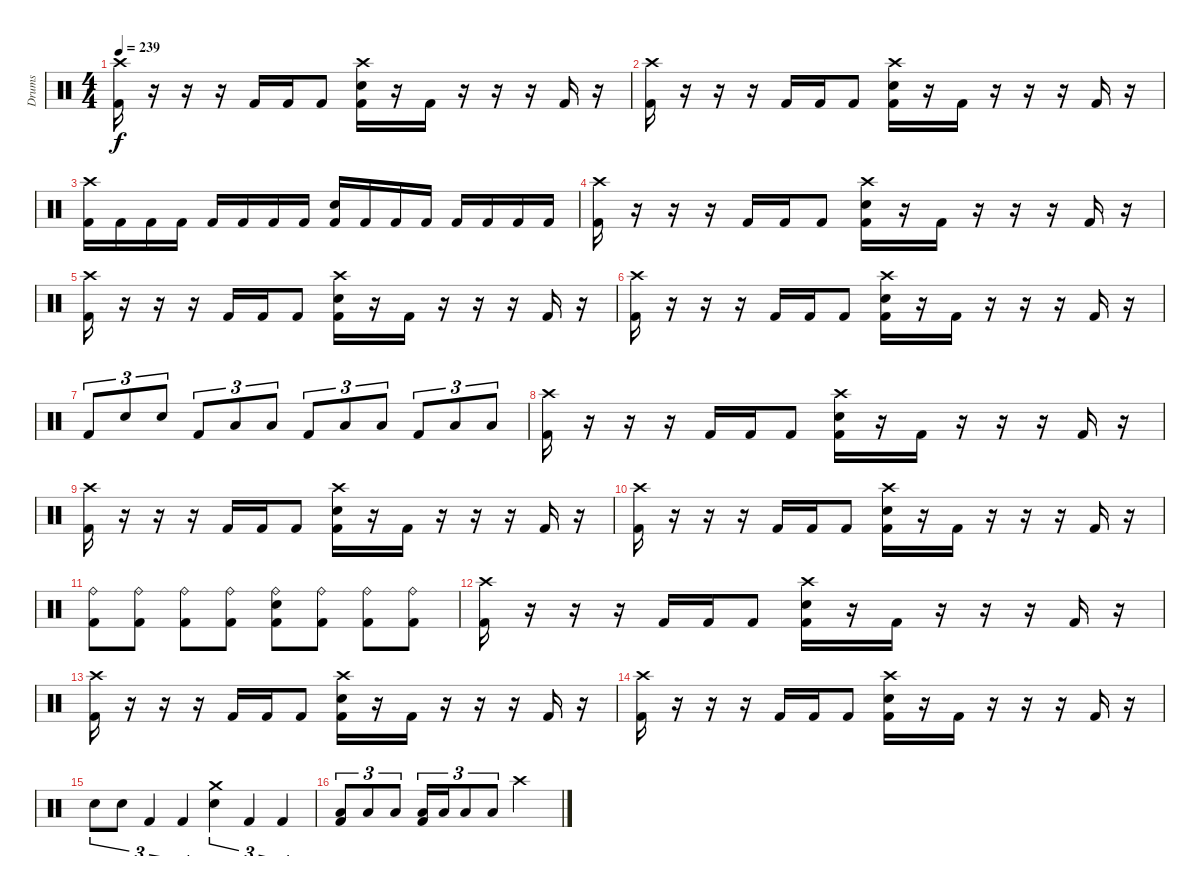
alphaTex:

\track ("Drums" "Drums") {instrument percussion}
\staff {score}
\articulation defaults
\ts (4 4)
\tempo 239
\clef neutral
\ks c
("Crash high (hit)" "Kick (hit) 2").16{dy f} r.16 r.16 r.16 "Kick (hit) 2".16 "Kick (hit) 2".16 "Kick (hit) 2".8 ("Crash high (hit)" "Electric Snare (hit)" "Kick (hit) 2").16 r.16 "Kick (hit) 2".16 r.16 r.16 r.16 "Kick (hit) 2".16 r.16 |
("Crash high (hit)" "Kick (hit) 2").16 r.16 r.16 r.16 "Kick (hit) 2".16 "Kick (hit) 2".16 "Kick (hit) 2".8 ("Crash high (hit)" "Electric Snare (hit)" "Kick (hit) 2").16 r.16 "Kick (hit) 2".16 r.16 r.16 r.16 "Kick (hit) 2".16 r.16 |
("Crash high (hit)" "Kick (hit) 2").16 "Kick (hit) 2".16 "Kick (hit) 2".16 "Kick (hit) 2".16 "Kick (hit) 2".16 "Kick (hit) 2".16 "Kick (hit) 2".16 "Kick (hit) 2".16 ("Electric Snare (hit)" "Kick (hit) 2").16 "Kick (hit) 2".16 "Kick (hit) 2".16 "Kick (hit) 2".16 "Kick (hit) 2".16 "Kick (hit) 2".16 "Kick (hit) 2".16 "Kick (hit) 2".16 |
("Crash high (hit)" "Kick (hit) 2").16 r.16 r.16 r.16 "Kick (hit) 2".16 "Kick (hit) 2".16 "Kick (hit) 2".8 ("Crash high (hit)" "Electric Snare (hit)" "Kick (hit) 2").16 r.16 "Kick (hit) 2".16 r.16 r.16 r.16 "Kick (hit) 2".16 r.16 |
("Crash high (hit)" "Kick (hit) 2").16 r.16 r.16 r.16 "Kick (hit) 2".16 "Kick (hit) 2".16 "Kick (hit) 2".8 ("Crash high (hit)" "Electric Snare (hit)" "Kick (hit) 2").16 r.16 "Kick (hit) 2".16 r.16 r.16 r.16 "Kick (hit) 2".16 r.16 |
("Crash high (hit)" "Kick (hit) 2").16 r.16 r.16 r.16 "Kick (hit) 2".16 "Kick (hit) 2".16 "Kick (hit) 2".8 ("Crash high (hit)" "Electric Snare (hit)" "Kick (hit) 2").16 r.16 "Kick (hit) 2".16 r.16 r.16 r.16 "Kick (hit) 2".16 r.16 |
"Kick (hit) 2".8{tu (3 2)} "Electric Snare (hit)".8{tu (3 2)} "Electric Snare (hit)".8{tu (3 2)} "Kick (hit) 2".8{tu (3 2)} "Low Tom (hit)".8{tu (3 2)} "Low Tom (hit)".8{tu (3 2)} "Kick (hit) 2".8{tu (3 2)} "Low Tom (hit)".8{tu (3 2)} "Low Tom (hit)".8{tu (3 2)} "Kick (hit) 2".8{tu (3 2)} "Low Floor Tom (hit)".8{tu (3 2)} "Low Floor Tom (hit)".8{tu (3 2)} |
("Crash high (hit)" "Kick (hit) 2").16 r.16 r.16 r.16 "Kick (hit) 2".16 "Kick (hit) 2".16 "Kick (hit) 2".8 ("Crash high (hit)" "Electric Snare (hit)" "Kick (hit) 2").16 r.16 "Kick (hit) 2".16 r.16 r.16 r.16 "Kick (hit) 2".16 r.16 |
("Crash high (hit)" "Kick (hit) 2").16 r.16 r.16 r.16 "Kick (hit) 2".16 "Kick (hit) 2".16 "Kick (hit) 2".8 ("Crash high (hit)" "Electric Snare (hit)" "Kick (hit) 2").16 r.16 "Kick (hit) 2".16 r.16 r.16 r.16 "Kick (hit) 2".16 r.16 |
("Crash high (hit)" "Kick (hit) 2").16 r.16 r.16 r.16 "Kick (hit) 2".16 "Kick (hit) 2".16 "Kick (hit) 2".8 ("Crash high (hit)" "Electric Snare (hit)" "Kick (hit) 2").16 r.16 "Kick (hit) 2".16 r.16 r.16 r.16 "Kick (hit) 2".16 r.16 |
("Ride (bell)" "Kick (hit) 2").8 ("Ride (bell)" "Kick (hit) 2").8 ("Ride (bell)" "Kick (hit) 2").8 ("Ride (bell)" "Kick (hit) 2").8 ("Ride (bell)" "Electric Snare (hit)" "Kick (hit) 2").8 ("Ride (bell)" "Kick (hit) 2").8 ("Ride (bell)" "Kick (hit) 2").8 ("Ride (bell)" "Kick (hit) 2").8 |
("Crash high (hit)" "Kick (hit) 2").16 r.16 r.16 r.16 "Kick (hit) 2".16 "Kick (hit) 2".16 "Kick (hit) 2".8 ("Crash high (hit)" "Electric Snare (hit)" "Kick (hit) 2").16 r.16 "Kick (hit) 2".16 r.16 r.16 r.16 "Kick (hit) 2".16 r.16 |
("Crash high (hit)" "Kick (hit) 2").16 r.16 r.16 r.16 "Kick (hit) 2".16 "Kick (hit) 2".16 "Kick (hit) 2".8 ("Crash high (hit)" "Electric Snare (hit)" "Kick (hit) 2").16 r.16 "Kick (hit) 2".16 r.16 r.16 r.16 "Kick (hit) 2".16 r.16 |
("Crash high (hit)" "Kick (hit) 2").16 r.16 r.16 r.16 "Kick (hit) 2".16 "Kick (hit) 2".16 "Kick (hit) 2".8 ("Crash high (hit)" "Electric Snare (hit)" "Kick (hit) 2").16 r.16 "Kick (hit) 2".16 r.16 r.16 r.16 "Kick (hit) 2".16 r.16 |
"Electric Snare (hit)".8{tu (3 2)} "Electric Snare (hit)".8{tu (3 2)} "Kick (hit) 2".4{tu (3 2)} "Kick (hit) 2".4{tu (3 2)} ("Crash medium (hit)" "Electric Snare (hit)").4{tu (3 2)} "Kick (hit) 2".4{tu (3 2)} "Kick (hit) 2".4{tu (3 2)} |
("Low Tom (hit)" "Kick (hit) 2").8{tu (3 2)} "Low Tom (hit)".8{tu (3 2)} "Low Tom (hit)".8{tu (3 2)} ("Low Floor Tom (hit)" "Kick (hit) 2").16{tu (3 2)} "Low Floor Tom (hit)".16{tu (3 2)} "Low Floor Tom (hit)".8{tu (3 2)} "Low Floor Tom (hit)".8{tu (3 2)} "Crash high (hit)".2
